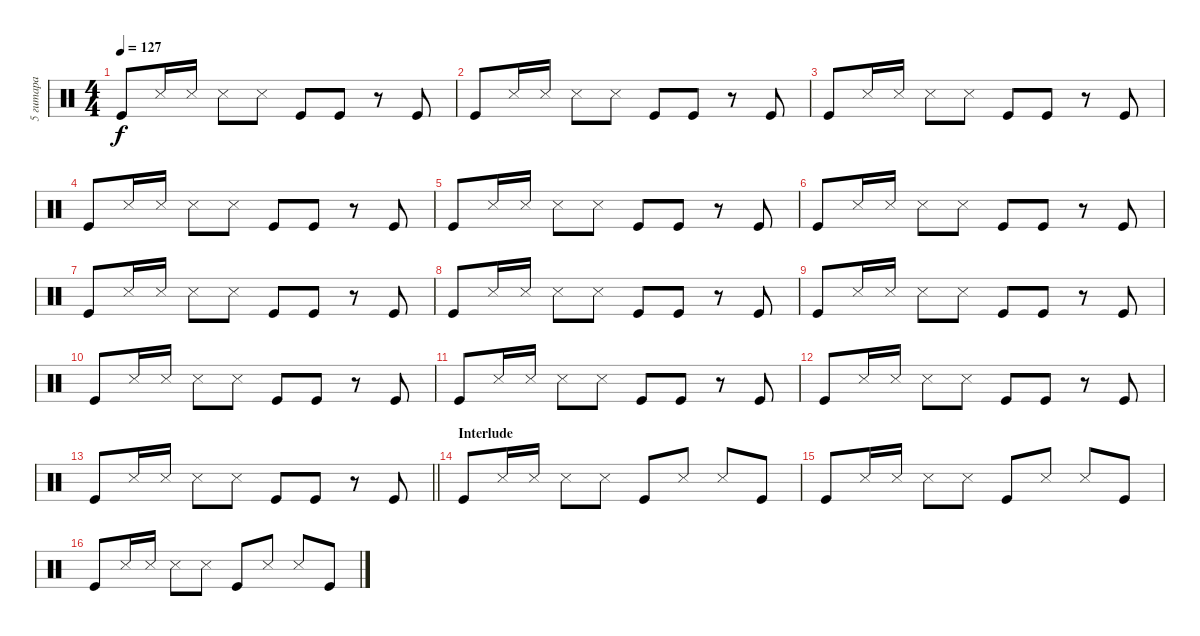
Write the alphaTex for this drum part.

\track ("5 гитара" "5 гитара") {instrument percussion}
\staff {score}
\articulation defaults
\ts (4 4)
\tempo 127
\clef neutral
\ks c "Kick (hit)".8{dy f} "Snare (side stick) 3".16 "Snare (side stick) 3".16 "Snare (side stick) 3".8 "Snare (side stick) 3".8 "Kick (hit)".8 "Kick (hit)".8
r.8 "Kick (hit)".8 |
"Kick (hit)".8 "Snare (side stick) 3".16 "Snare (side stick) 3".16 "Snare (side stick) 3".8 "Snare (side stick) 3".8 "Kick (hit)".8 "Kick (hit)".8 r.8 "Kick (hit)".8 |
"Kick (hit)".8 "Snare (side stick) 3".16 "Snare (side stick) 3".16 "Snare (side stick) 3".8 "Snare (side stick) 3".8 "Kick (hit)".8 "Kick (hit)".8 r.8 "Kick (hit)".8 |
"Kick (hit)".8 "Snare (side stick) 3".16 "Snare (side stick) 3".16 "Snare (side stick) 3".8 "Snare (side stick) 3".8 "Kick (hit)".8 "Kick (hit)".8 r.8 "Kick (hit)".8 |
"Kick (hit)".8 "Snare (side stick) 3".16 "Snare (side stick) 3".16 "Snare (side stick) 3".8 "Snare (side stick) 3".8 "Kick (hit)".8 "Kick (hit)".8 r.8 "Kick (hit)".8 |
"Kick (hit)".8 "Snare (side stick) 3".16 "Snare (side stick) 3".16 "Snare (side stick) 3".8 "Snare (side stick) 3".8 "Kick (hit)".8 "Kick (hit)".8 r.8 "Kick (hit)".8 |
"Kick (hit)".8 "Snare (side stick) 3".16 "Snare (side stick) 3".16 "Snare (side stick) 3".8 "Snare (side stick) 3".8 "Kick (hit)".8 "Kick (hit)".8 r.8 "Kick (hit)".8 |
"Kick (hit)".8 "Snare (side stick) 3".16 "Snare (side stick) 3".16 "Snare (side stick) 3".8 "Snare (side stick) 3".8 "Kick (hit)".8 "Kick (hit)".8 r.8 "Kick (hit)".8 |
"Kick (hit)".8 "Snare (side stick) 3".16 "Snare (side stick) 3".16 "Snare (side stick) 3".8 "Snare (side stick) 3".8 "Kick (hit)".8 "Kick (hit)".8 r.8 "Kick (hit)".8 |
"Kick (hit)".8 "Snare (side stick) 3".16 "Snare (side stick) 3".16 "Snare (side stick) 3".8 "Snare (side stick) 3".8 "Kick (hit)".8 "Kick (hit)".8 r.8 "Kick (hit)".8 |
"Kick (hit)".8 "Snare (side stick) 3".16 "Snare (side stick) 3".16 "Snare (side stick) 3".8 "Snare (side stick) 3".8 "Kick (hit)".8 "Kick (hit)".8 r.8 "Kick (hit)".8 |
"Kick (hit)".8 "Snare (side stick) 3".16 "Snare (side stick) 3".16 "Snare (side stick) 3".8 "Snare (side stick) 3".8 "Kick (hit)".8 "Kick (hit)".8 r.8 "Kick (hit)".8 |
\barLineRight lightlight "Kick (hit)".8 "Snare (side stick) 3".16 "Snare (side stick) 3".16 "Snare (side stick) 3".8 "Snare (side stick) 3".8 "Kick (hit)".8 "Kick (hit)".8
r.8 "Kick (hit)".8 |
\section ("" "Interlude")
"Kick (hit)".8 "Snare (side stick) 3".16 "Snare (side stick) 3".16 "Snare (side stick) 3".8 "Snare (side stick) 3".8 "Kick (hit)".8 "Snare (side stick) 3".8 "Snare (side stick) 3".8 "Kick (hit)".8 |
"Kick (hit)".8 "Snare (side stick) 3".16 "Snare (side stick) 3".16 "Snare (side stick) 3".8 "Snare (side stick) 3".8 "Kick (hit)".8 "Snare (side stick) 3".8 "Snare (side stick) 3".8 "Kick (hit)".8 |
"Kick (hit)".8 "Snare (side stick) 3".16 "Snare (side stick) 3".16 "Snare (side stick) 3".8 "Snare (side stick) 3".8 "Kick (hit)".8 "Snare (side stick) 3".8 "Snare (side stick) 3".8 "Kick (hit)".8
